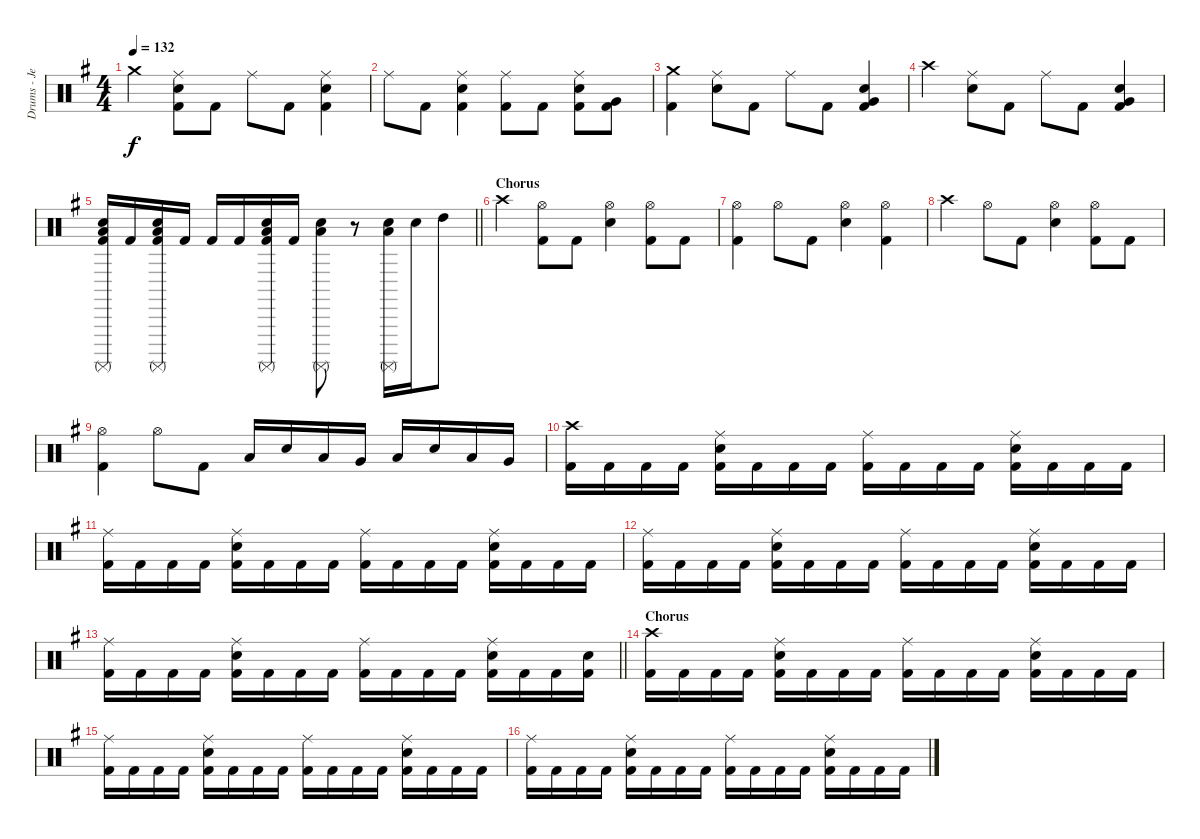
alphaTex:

\track ("Drums - Jeroen Simons " "Drums - Je") {instrument percussion}
\staff {score}
\articulation defaults
\ts (4 4)
\tempo 132
\clef neutral
\ks g "Crash medium (hit)".4{dy f}
("Ride (middle)" "Electric Snare (hit)" "Kick (hit) 2").8 "Kick (hit) 2".8 "Ride (middle)".8 "Kick (hit) 2".8 ("Ride (middle)" "Electric Snare (hit)" "Kick (hit) 2").4 |
"Ride (middle)".8 "Kick (hit) 2".8 ("Ride (middle)" "Electric Snare (hit)" "Kick (hit) 2").4 ("Ride (middle)" "Kick (hit) 2").8 "Kick (hit) 2".8 ("Ride (middle)" "Electric Snare (hit)" "Kick (hit) 2").8 ("Very Low Tom (hit)" "Kick (hit) 2").8 |
("Crash medium (hit)" "Kick (hit) 2").4 ("Ride (middle)" "Electric Snare (hit)").8 "Kick (hit) 2".8 "Ride (middle)".8 "Kick (hit) 2".8 ("Very Low Tom (hit)" "Electric Snare (hit)" "Kick (hit) 2").4 |
"Crash high (hit)".4 ("Ride (middle)" "Electric Snare (hit)").8 "Kick (hit) 2".8 "Ride (middle)".8 "Kick (hit) 2".8 ("Very Low Tom (hit)" "Electric Snare (hit)" "Kick (hit) 2").4 |
\barLineRight lightlight
("Surdo (mute)" "Low Tom (hit)" "Electric Snare (hit)" "Kick (hit) 2").16 "Kick (hit) 2".16 ("Surdo (mute)" "Low Tom (hit)" "Electric Snare (hit)" "Kick (hit) 2").16 "Kick (hit) 2".16 "Kick (hit) 2".16 "Kick (hit) 2".16 ("Surdo (mute)" "Low Tom (hit)" "Electric Snare (hit)" "Kick (hit) 2").16 "Kick (hit) 2".16 ("Surdo (mute)" "Low Tom (hit)" "Electric Snare (hit)").8 r.8 ("Surdo (mute)" "Low Tom (hit)" "Electric Snare (hit)").16 "Electric Snare (hit)".16 "High Tom (hit)".8 |
\section ("" "Chorus")
"Crash high (hit)".4 ("Hi-Hat (open)" "Kick (hit) 2").8 "Kick (hit) 2".8 ("Hi-Hat (open)" "Electric Snare (hit)").4 ("Hi-Hat (open)" "Kick (hit) 2").8 "Kick (hit) 2".8 |
("Hi-Hat (open)" "Kick (hit) 2").4 "Hi-Hat (open)".8 "Kick (hit) 2".8 ("Hi-Hat (open)" "Electric Snare (hit)").4 ("Hi-Hat (open)" "Kick (hit) 2").4 |
"Crash high (hit)".4 "Hi-Hat (open)".8 "Kick (hit) 2".8 ("Hi-Hat (open)" "Electric Snare (hit)").4 ("Hi-Hat (open)" "Kick (hit) 2").8 "Kick (hit) 2".8 |
("Hi-Hat (open)" "Kick (hit) 2").4 "Hi-Hat (open)".8 "Kick (hit) 2".8 "Low Tom (hit)".16 "Electric Snare (hit)".16 "Low Tom (hit)".16 "Very Low Tom (hit)".16 "Low Tom (hit)".16 "Electric Snare (hit)".16 "Low Tom (hit)".16 "Very Low Tom (hit)".16 |
("Crash high (hit)" "Kick (hit) 2").16 "Kick (hit) 2".16 "Kick (hit) 2".16 "Kick (hit) 2".16 ("Ride (middle)" "Electric Snare (hit)" "Kick (hit) 2").16 "Kick (hit) 2".16 "Kick (hit) 2".16 "Kick (hit) 2".16 ("Ride (middle)" "Kick (hit) 2").16 "Kick (hit) 2".16 "Kick (hit) 2".16 "Kick (hit) 2".16 ("Ride (middle)" "Electric Snare (hit)" "Kick (hit) 2").16 "Kick (hit) 2".16 "Kick (hit) 2".16 "Kick (hit) 2".16 |
("Ride (middle)" "Kick (hit) 2").16 "Kick (hit) 2".16 "Kick (hit) 2".16 "Kick (hit) 2".16 ("Ride (middle)" "Electric Snare (hit)" "Kick (hit) 2").16 "Kick (hit) 2".16 "Kick (hit) 2".16 "Kick (hit) 2".16 ("Ride (middle)" "Kick (hit) 2").16 "Kick (hit) 2".16 "Kick (hit) 2".16 "Kick (hit) 2".16 ("Ride (middle)" "Electric Snare (hit)" "Kick (hit) 2").16 "Kick (hit) 2".16 "Kick (hit) 2".16 "Kick (hit) 2".16 |
("Ride (middle)" "Kick (hit) 2").16 "Kick (hit) 2".16 "Kick (hit) 2".16 "Kick (hit) 2".16 ("Ride (middle)" "Electric Snare (hit)" "Kick (hit) 2").16 "Kick (hit) 2".16 "Kick (hit) 2".16 "Kick (hit) 2".16 ("Ride (middle)" "Kick (hit) 2").16 "Kick (hit) 2".16 "Kick (hit) 2".16 "Kick (hit) 2".16 ("Ride (middle)" "Electric Snare (hit)" "Kick (hit) 2").16 "Kick (hit) 2".16 "Kick (hit) 2".16 "Kick (hit) 2".16 |
\barLineRight lightlight
("Ride (middle)" "Kick (hit) 2").16 "Kick (hit) 2".16 "Kick (hit) 2".16 "Kick (hit) 2".16 ("Ride (middle)" "Electric Snare (hit)" "Kick (hit) 2").16 "Kick (hit) 2".16 "Kick (hit) 2".16 "Kick (hit) 2".16 ("Ride (middle)" "Kick (hit) 2").16 "Kick (hit) 2".16 "Kick (hit) 2".16 "Kick (hit) 2".16 ("Ride (middle)" "Electric Snare (hit)" "Kick (hit) 2").16 "Kick (hit) 2".16 "Kick (hit) 2".16 ("Electric Snare (hit)" "Kick (hit) 2").16 |
\section ("" "Chorus")
("Crash high (hit)" "Kick (hit) 2").16 "Kick (hit) 2".16 "Kick (hit) 2".16 "Kick (hit) 2".16 ("Ride (middle)" "Electric Snare (hit)" "Kick (hit) 2").16 "Kick (hit) 2".16 "Kick (hit) 2".16 "Kick (hit) 2".16 ("Ride (middle)" "Kick (hit) 2").16 "Kick (hit) 2".16 "Kick (hit) 2".16 "Kick (hit) 2".16 ("Ride (middle)" "Electric Snare (hit)" "Kick (hit) 2").16 "Kick (hit) 2".16 "Kick (hit) 2".16 "Kick (hit) 2".16 |
("Ride (middle)" "Kick (hit) 2").16 "Kick (hit) 2".16 "Kick (hit) 2".16 "Kick (hit) 2".16 ("Ride (middle)" "Electric Snare (hit)" "Kick (hit) 2").16 "Kick (hit) 2".16 "Kick (hit) 2".16 "Kick (hit) 2".16 ("Ride (middle)" "Kick (hit) 2").16 "Kick (hit) 2".16 "Kick (hit) 2".16 "Kick (hit) 2".16 ("Ride (middle)" "Electric Snare (hit)" "Kick (hit) 2").16 "Kick (hit) 2".16 "Kick (hit) 2".16 "Kick (hit) 2".16 |
("Ride (middle)" "Kick (hit) 2").16 "Kick (hit) 2".16 "Kick (hit) 2".16 "Kick (hit) 2".16 ("Ride (middle)" "Electric Snare (hit)" "Kick (hit) 2").16 "Kick (hit) 2".16 "Kick (hit) 2".16 "Kick (hit) 2".16 ("Ride (middle)" "Kick (hit) 2").16 "Kick (hit) 2".16 "Kick (hit) 2".16 "Kick (hit) 2".16 ("Ride (middle)" "Electric Snare (hit)" "Kick (hit) 2").16 "Kick (hit) 2".16 "Kick (hit) 2".16 "Kick (hit) 2".16
